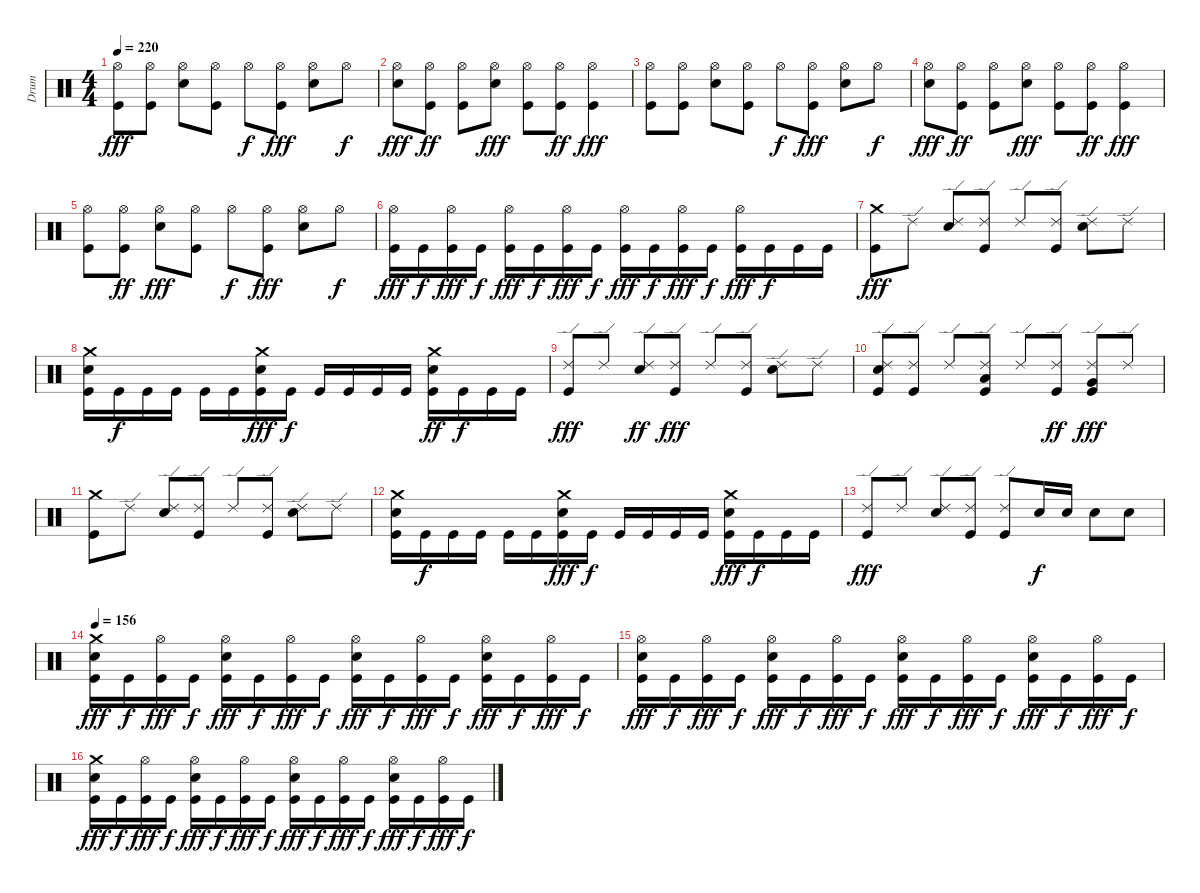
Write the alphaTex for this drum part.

\track ("Drum" "Drum") {instrument percussion}
\staff {score}
\articulation defaults
\ts (4 4)
\tempo 220
\clef neutral
\ks c
("Hi-Hat (open)" "Kick (hit)").8{dy fff} ("Hi-Hat (open)" "Kick (hit)").8 ("Hi-Hat (open)" "Snare (hit) 2").8 ("Hi-Hat (open)" "Kick (hit)").8 "Hi-Hat (open)".8{dy f} ("Hi-Hat (open)" "Kick (hit)").8{dy fff} ("Hi-Hat (open)" "Snare (hit) 2").8 "Hi-Hat (open)".8{dy f} |
("Hi-Hat (open)" "Snare (hit) 2").8{dy fff} ("Hi-Hat (open)" "Kick (hit)").8{dy ff} ("Hi-Hat (open)" "Kick (hit)").8 ("Hi-Hat (open)" "Snare (hit) 2").8{dy fff} ("Hi-Hat (open)" "Kick (hit)").8 ("Hi-Hat (open)" "Kick (hit)").8{dy ff} ("Hi-Hat (open)" "Kick (hit)").4{dy fff} |
("Hi-Hat (open)" "Kick (hit)").8 ("Hi-Hat (open)" "Kick (hit)").8 ("Hi-Hat (open)" "Snare (hit) 2").8 ("Hi-Hat (open)" "Kick (hit)").8 "Hi-Hat (open)".8{dy f} ("Hi-Hat (open)" "Kick (hit)").8{dy fff} ("Hi-Hat (open)" "Snare (hit) 2").8 "Hi-Hat (open)".8{dy f} |
("Hi-Hat (open)" "Snare (hit) 2").8{dy fff} ("Hi-Hat (open)" "Kick (hit)").8{dy ff} ("Hi-Hat (open)" "Kick (hit)").8 ("Hi-Hat (open)" "Snare (hit) 2").8{dy fff} ("Hi-Hat (open)" "Kick (hit)").8 ("Hi-Hat (open)" "Kick (hit)").8{dy ff} ("Hi-Hat (open)" "Kick (hit)").4{dy fff} |
("Hi-Hat (open)" "Kick (hit)").8 ("Hi-Hat (open)" "Kick (hit)").8{dy ff} ("Hi-Hat (open)" "Snare (hit) 2").8{dy fff} ("Hi-Hat (open)" "Kick (hit)").8 "Hi-Hat (open)".8{dy f} ("Hi-Hat (open)" "Kick (hit)").8{dy fff} ("Hi-Hat (open)" "Snare (hit) 2").8 "Hi-Hat (open)".8{dy f} |
("Hi-Hat (open)" "Kick (hit)").16{dy fff} "Kick (hit)".16{dy f} ("Hi-Hat (open)" "Kick (hit)").16{dy fff} "Kick (hit)".16{dy f} ("Hi-Hat (open)" "Kick (hit)").16{dy fff} "Kick (hit)".16{dy f} ("Hi-Hat (open)" "Kick (hit)").16{dy fff} "Kick (hit)".16{dy f} ("Hi-Hat (open)" "Kick (hit)").16{dy fff} "Kick (hit)".16{dy f} ("Hi-Hat (open)" "Kick (hit)").16{dy fff} "Kick (hit)".16{dy f} ("Hi-Hat (open)" "Kick (hit)").16{dy fff} "Kick (hit)".16{dy f} "Kick (hit)".16 "Kick (hit)".16 |
("Crash medium (hit)" "Kick (hit)").8{dy fff} "Ride (edge) 2".8 ("Ride (edge) 2" "Snare (hit) 2").8 ("Ride (edge) 2" "Kick (hit)").8 "Ride (edge) 2".8 ("Ride (edge) 2" "Kick (hit)").8 ("Ride (edge) 2" "Snare (hit) 2").8 "Ride (edge) 2".8 |
("Crash medium (hit)" "Snare (hit) 2" "Kick (hit)").16 "Kick (hit)".16{dy f} "Kick (hit)".16 "Kick (hit)".16 "Kick (hit)".16 "Kick (hit)".16 ("Crash medium (hit)" "Snare (hit) 2" "Kick (hit)").16{dy fff} "Kick (hit)".16{dy f} "Kick (hit)".16 "Kick (hit)".16 "Kick (hit)".16 "Kick (hit)".16 ("Crash medium (hit)" "Snare (hit) 2" "Kick (hit)").16{dy ff} "Kick (hit)".16{dy f} "Kick (hit)".16 "Kick (hit)".16 |
("Ride (edge) 2" "Kick (hit)").8{dy fff} "Ride (edge) 2".8 ("Ride (edge) 2" "Snare (hit) 2").8{dy ff} ("Ride (edge) 2" "Kick (hit)").8{dy fff} "Ride (edge) 2".8 ("Ride (edge) 2" "Kick (hit)").8 ("Ride (edge) 2" "Snare (hit) 2").8 "Ride (edge) 2".8 |
("Ride (edge) 2" "Snare (hit) 2" "Kick (hit)").8 ("Ride (edge) 2" "Kick (hit)").8 "Ride (edge) 2".8 ("Ride (edge) 2" "Low Floor Tom (hit)" "Kick (hit)").8 "Ride (edge) 2".8 ("Ride (edge) 2" "Kick (hit)").8{dy ff} ("Ride (edge) 2" "Very Low Tom (hit)" "Kick (hit)").8{dy fff} "Ride (edge) 2".8 |
("Crash medium (hit)" "Kick (hit)").8 "Ride (edge) 2".8 ("Ride (edge) 2" "Snare (hit) 2").8 ("Ride (edge) 2" "Kick (hit)").8 "Ride (edge) 2".8 ("Ride (edge) 2" "Kick (hit)").8 ("Ride (edge) 2" "Snare (hit) 2").8 "Ride (edge) 2".8 |
("Crash medium (hit)" "Snare (hit) 2" "Kick (hit)").16 "Kick (hit)".16{dy f} "Kick (hit)".16 "Kick (hit)".16 "Kick (hit)".16 "Kick (hit)".16 ("Crash medium (hit)" "Snare (hit) 2" "Kick (hit)").16{dy fff} "Kick (hit)".16{dy f} "Kick (hit)".16 "Kick (hit)".16 "Kick (hit)".16 "Kick (hit)".16 ("Crash medium (hit)" "Snare (hit) 2" "Kick (hit)").16{dy fff} "Kick (hit)".16{dy f} "Kick (hit)".16 "Kick (hit)".16 |
("Ride (edge) 2" "Kick (hit)").8{dy fff} "Ride (edge) 2".8 ("Ride (edge) 2" "Snare (hit) 2").8 ("Ride (edge) 2" "Kick (hit)").8 ("Ride (edge) 2" "Kick (hit)").8 "Snare (hit) 2".16{dy f} "Snare (hit) 2".16 "Snare (hit) 2".8 "Snare (hit) 2".8 |
\tempo 156
("Crash medium (hit)" "Snare (hit) 2" "Kick (hit)").16{dy fff} "Kick (hit)".16{dy f} ("Hi-Hat (open)" "Kick (hit)").16{dy fff} "Kick (hit)".16{dy f} ("Hi-Hat (open)" "Snare (hit) 2" "Kick (hit)").16{dy fff} "Kick (hit)".16{dy f} ("Hi-Hat (open)" "Kick (hit)").16{dy fff} "Kick (hit)".16{dy f} ("Hi-Hat (open)" "Snare (hit) 2" "Kick (hit)").16{dy fff} "Kick (hit)".16{dy f} ("Hi-Hat (open)" "Kick (hit)").16{dy fff} "Kick (hit)".16{dy f} ("Hi-Hat (open)" "Snare (hit) 2" "Kick (hit)").16{dy fff} "Kick (hit)".16{dy f} ("Hi-Hat (open)" "Kick (hit)").16{dy fff} "Kick (hit)".16{dy f} |
("Hi-Hat (open)" "Snare (hit) 2" "Kick (hit)").16{dy fff} "Kick (hit)".16{dy f} ("Hi-Hat (open)" "Kick (hit)").16{dy fff} "Kick (hit)".16{dy f} ("Hi-Hat (open)" "Snare (hit) 2" "Kick (hit)").16{dy fff} "Kick (hit)".16{dy f} ("Hi-Hat (open)" "Kick (hit)").16{dy fff} "Kick (hit)".16{dy f} ("Hi-Hat (open)" "Snare (hit) 2" "Kick (hit)").16{dy fff} "Kick (hit)".16{dy f} ("Hi-Hat (open)" "Kick (hit)").16{dy fff} "Kick (hit)".16{dy f} ("Hi-Hat (open)" "Snare (hit) 2" "Kick (hit)").16{dy fff} "Kick (hit)".16{dy f} ("Hi-Hat (open)" "Kick (hit)").16{dy fff} "Kick (hit)".16{dy f} |
("Crash medium (hit)" "Snare (hit) 2" "Kick (hit)").16{dy fff} "Kick (hit)".16{dy f} ("Hi-Hat (open)" "Kick (hit)").16{dy fff} "Kick (hit)".16{dy f} ("Hi-Hat (open)" "Snare (hit) 2" "Kick (hit)").16{dy fff} "Kick (hit)".16{dy f} ("Hi-Hat (open)" "Kick (hit)").16{dy fff} "Kick (hit)".16{dy f} ("Hi-Hat (open)" "Snare (hit) 2" "Kick (hit)").16{dy fff} "Kick (hit)".16{dy f} ("Hi-Hat (open)" "Kick (hit)").16{dy fff} "Kick (hit)".16{dy f} ("Hi-Hat (open)" "Snare (hit) 2" "Kick (hit)").16{dy fff} "Kick (hit)".16{dy f} ("Hi-Hat (open)" "Kick (hit)").16{dy fff} "Kick (hit)".16{dy f}
